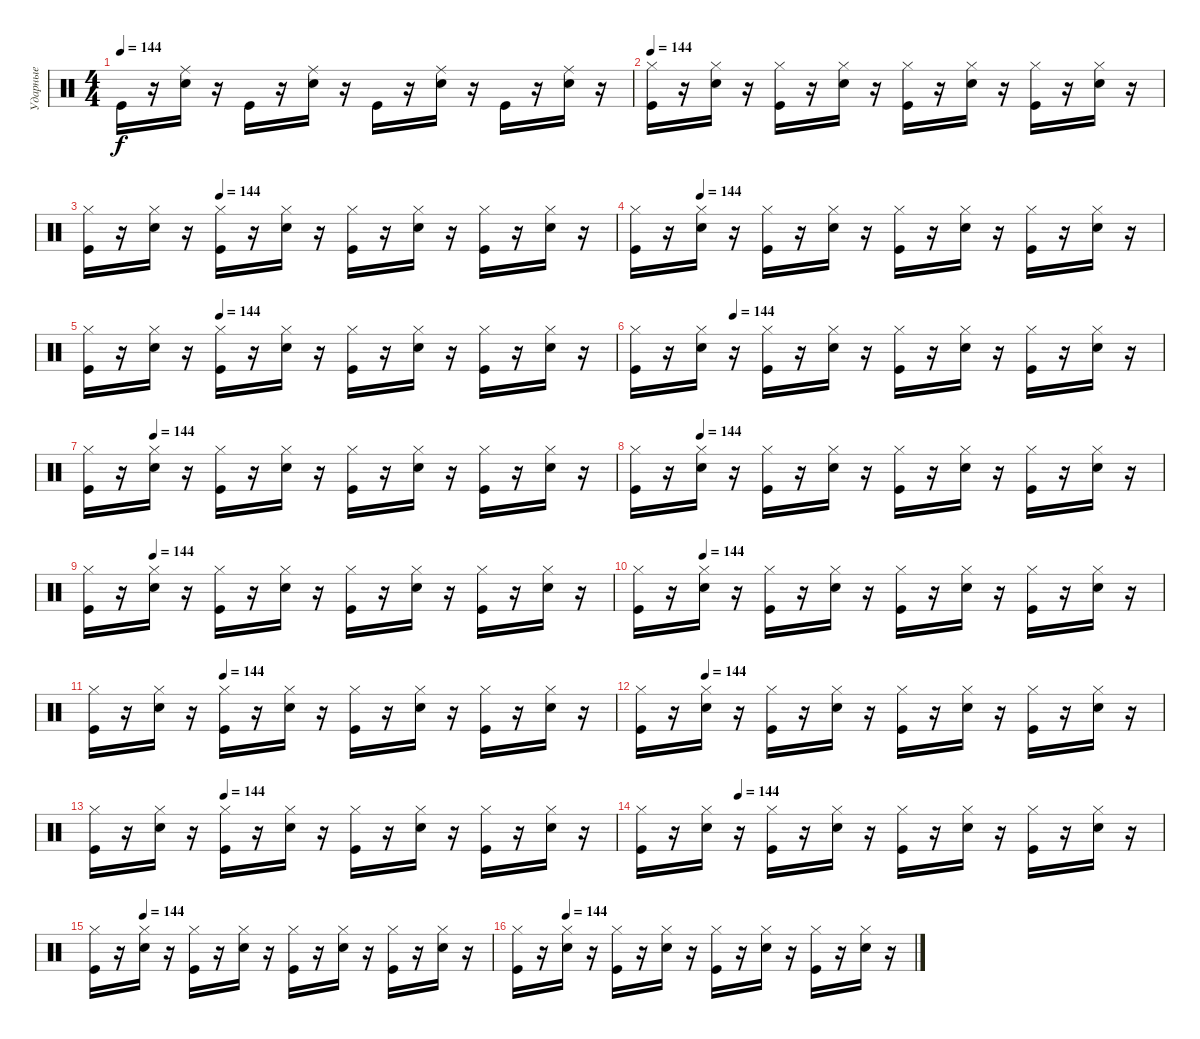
\track ("Ударные" "Ударные") {instrument percussion}
\staff {score}
\articulation defaults
\ts (4 4)
\tempo 144
\clef neutral
\ks c "Kick (hit)".16{dy f}
r.16 ("Snare (hit) 2" "Ride (middle)").16 r.16 "Kick (hit)".16 r.16 ("Snare (hit) 2" "Ride (middle)").16 r.16 "Kick (hit)".16 r.16 ("Snare (hit) 2" "Ride (middle)").16 r.16 "Kick (hit)".16 r.16 ("Snare (hit) 2" "Ride (middle)").16 r.16 |
\tempo 144
("Kick (hit)" "Hi-Hat (closed)").16 r.16 ("Hi-Hat (closed)" "Snare (hit) 2").16 r.16 ("Kick (hit)" "Hi-Hat (closed)").16 r.16 ("Hi-Hat (closed)" "Snare (hit) 2").16 r.16 ("Kick (hit)" "Hi-Hat (closed)").16 r.16 ("Hi-Hat (closed)" "Snare (hit) 2").16 r.16 ("Kick (hit)" "Hi-Hat (closed)").16 r.16 ("Hi-Hat (closed)" "Snare (hit) 2").16 r.16 |
\tempo (144 0.25)
("Kick (hit)" "Hi-Hat (closed)").16 r.16 ("Hi-Hat (closed)" "Snare (hit) 2").16 r.16 ("Kick (hit)" "Hi-Hat (closed)").16 r.16 ("Hi-Hat (closed)" "Snare (hit) 2").16 r.16 ("Kick (hit)" "Hi-Hat (closed)").16 r.16 ("Hi-Hat (closed)" "Snare (hit) 2").16 r.16 ("Kick (hit)" "Hi-Hat (closed)").16 r.16 ("Hi-Hat (closed)" "Snare (hit) 2").16 r.16 |
\tempo (144 0.125)
("Kick (hit)" "Hi-Hat (closed)").16 r.16 ("Hi-Hat (closed)" "Snare (hit) 2").16 r.16 ("Kick (hit)" "Hi-Hat (closed)").16 r.16 ("Hi-Hat (closed)" "Snare (hit) 2").16 r.16 ("Kick (hit)" "Hi-Hat (closed)").16 r.16 ("Hi-Hat (closed)" "Snare (hit) 2").16 r.16 ("Kick (hit)" "Hi-Hat (closed)").16 r.16 ("Hi-Hat (closed)" "Snare (hit) 2").16 r.16 |
\tempo (144 0.25)
("Kick (hit)" "Hi-Hat (closed)").16 r.16 ("Hi-Hat (closed)" "Snare (hit) 2").16 r.16 ("Kick (hit)" "Hi-Hat (closed)").16 r.16 ("Hi-Hat (closed)" "Snare (hit) 2").16 r.16 ("Kick (hit)" "Hi-Hat (closed)").16 r.16 ("Hi-Hat (closed)" "Snare (hit) 2").16 r.16 ("Kick (hit)" "Hi-Hat (closed)").16 r.16 ("Hi-Hat (closed)" "Snare (hit) 2").16 r.16 |
\tempo (144 0.1875)
("Kick (hit)" "Hi-Hat (closed)").16 r.16 ("Hi-Hat (closed)" "Snare (hit) 2").16 r.16 ("Kick (hit)" "Hi-Hat (closed)").16 r.16 ("Hi-Hat (closed)" "Snare (hit) 2").16 r.16 ("Kick (hit)" "Hi-Hat (closed)").16 r.16 ("Hi-Hat (closed)" "Snare (hit) 2").16 r.16 ("Kick (hit)" "Hi-Hat (closed)").16 r.16 ("Hi-Hat (closed)" "Snare (hit) 2").16 r.16 |
\tempo (144 0.125)
("Kick (hit)" "Hi-Hat (closed)").16 r.16 ("Hi-Hat (closed)" "Snare (hit) 2").16 r.16 ("Kick (hit)" "Hi-Hat (closed)").16 r.16 ("Hi-Hat (closed)" "Snare (hit) 2").16 r.16 ("Kick (hit)" "Hi-Hat (closed)").16 r.16 ("Hi-Hat (closed)" "Snare (hit) 2").16 r.16 ("Kick (hit)" "Hi-Hat (closed)").16 r.16 ("Hi-Hat (closed)" "Snare (hit) 2").16 r.16 |
\tempo (144 0.125)
("Kick (hit)" "Hi-Hat (closed)").16 r.16 ("Hi-Hat (closed)" "Snare (hit) 2").16 r.16 ("Kick (hit)" "Hi-Hat (closed)").16 r.16 ("Hi-Hat (closed)" "Snare (hit) 2").16 r.16 ("Kick (hit)" "Hi-Hat (closed)").16 r.16 ("Hi-Hat (closed)" "Snare (hit) 2").16 r.16 ("Kick (hit)" "Hi-Hat (closed)").16 r.16 ("Hi-Hat (closed)" "Snare (hit) 2").16 r.16 |
\tempo (144 0.125)
("Kick (hit)" "Hi-Hat (closed)").16 r.16 ("Hi-Hat (closed)" "Snare (hit) 2").16 r.16 ("Kick (hit)" "Hi-Hat (closed)").16 r.16 ("Hi-Hat (closed)" "Snare (hit) 2").16 r.16 ("Kick (hit)" "Hi-Hat (closed)").16 r.16 ("Hi-Hat (closed)" "Snare (hit) 2").16 r.16 ("Kick (hit)" "Hi-Hat (closed)").16 r.16 ("Hi-Hat (closed)" "Snare (hit) 2").16 r.16 |
\tempo (144 0.125)
("Kick (hit)" "Hi-Hat (closed)").16 r.16 ("Hi-Hat (closed)" "Snare (hit) 2").16 r.16 ("Kick (hit)" "Hi-Hat (closed)").16 r.16 ("Hi-Hat (closed)" "Snare (hit) 2").16 r.16 ("Kick (hit)" "Hi-Hat (closed)").16 r.16 ("Hi-Hat (closed)" "Snare (hit) 2").16 r.16 ("Kick (hit)" "Hi-Hat (closed)").16 r.16 ("Hi-Hat (closed)" "Snare (hit) 2").16 r.16 |
\tempo (144 0.25)
("Kick (hit)" "Hi-Hat (closed)").16 r.16 ("Hi-Hat (closed)" "Snare (hit) 2").16 r.16 ("Kick (hit)" "Hi-Hat (closed)").16 r.16 ("Hi-Hat (closed)" "Snare (hit) 2").16 r.16 ("Kick (hit)" "Hi-Hat (closed)").16 r.16 ("Hi-Hat (closed)" "Snare (hit) 2").16 r.16 ("Kick (hit)" "Hi-Hat (closed)").16 r.16 ("Hi-Hat (closed)" "Snare (hit) 2").16 r.16 |
\tempo (144 0.125)
("Kick (hit)" "Hi-Hat (closed)").16 r.16 ("Hi-Hat (closed)" "Snare (hit) 2").16 r.16 ("Kick (hit)" "Hi-Hat (closed)").16 r.16 ("Hi-Hat (closed)" "Snare (hit) 2").16 r.16 ("Kick (hit)" "Hi-Hat (closed)").16 r.16 ("Hi-Hat (closed)" "Snare (hit) 2").16 r.16 ("Kick (hit)" "Hi-Hat (closed)").16 r.16 ("Hi-Hat (closed)" "Snare (hit) 2").16 r.16 |
\tempo (144 0.25)
("Kick (hit)" "Hi-Hat (closed)").16 r.16 ("Hi-Hat (closed)" "Snare (hit) 2").16 r.16 ("Kick (hit)" "Hi-Hat (closed)").16 r.16 ("Hi-Hat (closed)" "Snare (hit) 2").16 r.16 ("Kick (hit)" "Hi-Hat (closed)").16 r.16 ("Hi-Hat (closed)" "Snare (hit) 2").16 r.16 ("Kick (hit)" "Hi-Hat (closed)").16 r.16 ("Hi-Hat (closed)" "Snare (hit) 2").16 r.16 |
\tempo (144 0.1875)
("Kick (hit)" "Hi-Hat (closed)").16 r.16 ("Hi-Hat (closed)" "Snare (hit) 2").16 r.16 ("Kick (hit)" "Hi-Hat (closed)").16 r.16 ("Hi-Hat (closed)" "Snare (hit) 2").16 r.16 ("Kick (hit)" "Hi-Hat (closed)").16 r.16 ("Hi-Hat (closed)" "Snare (hit) 2").16 r.16 ("Kick (hit)" "Hi-Hat (closed)").16 r.16 ("Hi-Hat (closed)" "Snare (hit) 2").16 r.16 |
\tempo (144 0.125)
("Kick (hit)" "Hi-Hat (closed)").16 r.16 ("Hi-Hat (closed)" "Snare (hit) 2").16 r.16 ("Kick (hit)" "Hi-Hat (closed)").16 r.16 ("Hi-Hat (closed)" "Snare (hit) 2").16 r.16 ("Kick (hit)" "Hi-Hat (closed)").16 r.16 ("Hi-Hat (closed)" "Snare (hit) 2").16 r.16 ("Kick (hit)" "Hi-Hat (closed)").16 r.16 ("Hi-Hat (closed)" "Snare (hit) 2").16 r.16 |
\tempo (144 0.125)
("Kick (hit)" "Hi-Hat (closed)").16 r.16 ("Hi-Hat (closed)" "Snare (hit) 2").16 r.16 ("Kick (hit)" "Hi-Hat (closed)").16 r.16 ("Hi-Hat (closed)" "Snare (hit) 2").16 r.16 ("Kick (hit)" "Hi-Hat (closed)").16 r.16 ("Hi-Hat (closed)" "Snare (hit) 2").16 r.16 ("Kick (hit)" "Hi-Hat (closed)").16 r.16 ("Hi-Hat (closed)" "Snare (hit) 2").16 r.16
